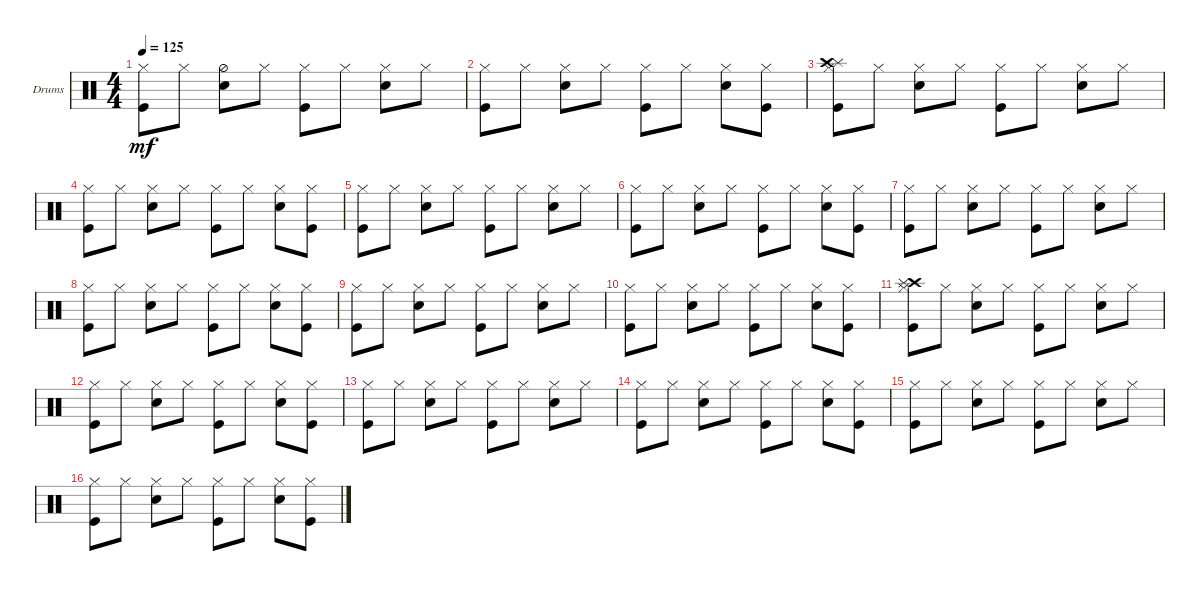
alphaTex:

\defaultSystemsLayout 4
\bracketExtendMode groupsimilarinstruments
\firstSystemTrackNameOrientation horizontal
\otherSystemsTrackNameOrientation horizontal
\track ("Drumkit" "Drums") {instrument percussion}
\staff {score}
\articulation defaults
\ts (4 4)
\tempo 125
\clef neutral
\ks c
("Kick (hit)" "Hi-Hat (closed)").8{dy mf} "Hi-Hat (closed)".8 ("Hi-Hat (half)" "Snare (hit) 2").8 "Hi-Hat (closed)".8 ("Kick (hit)" "Hi-Hat (closed)").8 "Hi-Hat (closed)".8 ("Hi-Hat (closed)" "Snare (hit) 2").8 "Hi-Hat (closed)".8 |
("Kick (hit)" "Hi-Hat (closed)").8 "Hi-Hat (closed)".8 ("Hi-Hat (closed)" "Snare (hit) 2").8 "Hi-Hat (closed)".8 ("Kick (hit)" "Hi-Hat (closed)").8 "Hi-Hat (closed)".8 ("Hi-Hat (closed)" "Snare (hit) 2").8 ("Hi-Hat (closed)" "Kick (hit)").8 |
("Kick (hit)" "Hi-Hat (closed)" "Splash (hit)" "Crash high (hit)").8 "Hi-Hat (closed)".8 ("Hi-Hat (closed)" "Snare (hit) 2").8 "Hi-Hat (closed)".8 ("Kick (hit)" "Hi-Hat (closed)").8 "Hi-Hat (closed)".8 ("Hi-Hat (closed)" "Snare (hit) 2").8 "Hi-Hat (closed)".8 |
("Kick (hit)" "Hi-Hat (closed)").8 "Hi-Hat (closed)".8 ("Hi-Hat (closed)" "Snare (hit) 2").8 "Hi-Hat (closed)".8 ("Kick (hit)" "Hi-Hat (closed)").8 "Hi-Hat (closed)".8 ("Hi-Hat (closed)" "Snare (hit) 2").8 ("Hi-Hat (closed)" "Kick (hit)").8 |
("Kick (hit)" "Hi-Hat (closed)").8 "Hi-Hat (closed)".8 ("Hi-Hat (closed)" "Snare (hit) 2").8 "Hi-Hat (closed)".8 ("Kick (hit)" "Hi-Hat (closed)").8 "Hi-Hat (closed)".8 ("Hi-Hat (closed)" "Snare (hit) 2").8 "Hi-Hat (closed)".8 |
("Kick (hit)" "Hi-Hat (closed)").8 "Hi-Hat (closed)".8 ("Hi-Hat (closed)" "Snare (hit) 2").8 "Hi-Hat (closed)".8 ("Kick (hit)" "Hi-Hat (closed)").8 "Hi-Hat (closed)".8 ("Hi-Hat (closed)" "Snare (hit) 2").8 ("Hi-Hat (closed)" "Kick (hit)").8 |
("Kick (hit)" "Hi-Hat (closed)").8 "Hi-Hat (closed)".8 ("Hi-Hat (closed)" "Snare (hit) 2").8 "Hi-Hat (closed)".8 ("Kick (hit)" "Hi-Hat (closed)").8 "Hi-Hat (closed)".8 ("Hi-Hat (closed)" "Snare (hit) 2").8 "Hi-Hat (closed)".8 |
("Kick (hit)" "Hi-Hat (closed)").8 "Hi-Hat (closed)".8 ("Hi-Hat (closed)" "Snare (hit) 2").8 "Hi-Hat (closed)".8 ("Kick (hit)" "Hi-Hat (closed)").8 "Hi-Hat (closed)".8 ("Hi-Hat (closed)" "Snare (hit) 2").8 ("Hi-Hat (closed)" "Kick (hit)").8 |
("Kick (hit)" "Hi-Hat (closed)").8 "Hi-Hat (closed)".8 ("Hi-Hat (closed)" "Snare (hit) 2").8 "Hi-Hat (closed)".8 ("Kick (hit)" "Hi-Hat (closed)").8 "Hi-Hat (closed)".8 ("Hi-Hat (closed)" "Snare (hit) 2").8 "Hi-Hat (closed)".8 |
("Kick (hit)" "Hi-Hat (closed)").8 "Hi-Hat (closed)".8 ("Hi-Hat (closed)" "Snare (hit) 2").8 "Hi-Hat (closed)".8 ("Kick (hit)" "Hi-Hat (closed)").8 "Hi-Hat (closed)".8 ("Hi-Hat (closed)" "Snare (hit) 2").8 ("Hi-Hat (closed)" "Kick (hit)").8 |
("Kick (hit)" "Hi-Hat (closed)" "Crash high (hit)" "Splash (hit)").8 "Hi-Hat (closed)".8 ("Hi-Hat (closed)" "Snare (hit) 2").8 "Hi-Hat (closed)".8 ("Kick (hit)" "Hi-Hat (closed)").8 "Hi-Hat (closed)".8 ("Hi-Hat (closed)" "Snare (hit) 2").8 "Hi-Hat (closed)".8 |
("Kick (hit)" "Hi-Hat (closed)").8 "Hi-Hat (closed)".8 ("Hi-Hat (closed)" "Snare (hit) 2").8 "Hi-Hat (closed)".8 ("Kick (hit)" "Hi-Hat (closed)").8 "Hi-Hat (closed)".8 ("Hi-Hat (closed)" "Snare (hit) 2").8 ("Hi-Hat (closed)" "Kick (hit)").8 |
("Kick (hit)" "Hi-Hat (closed)").8 "Hi-Hat (closed)".8 ("Hi-Hat (closed)" "Snare (hit) 2").8 "Hi-Hat (closed)".8 ("Kick (hit)" "Hi-Hat (closed)").8 "Hi-Hat (closed)".8 ("Hi-Hat (closed)" "Snare (hit) 2").8 "Hi-Hat (closed)".8 |
("Kick (hit)" "Hi-Hat (closed)").8 "Hi-Hat (closed)".8 ("Hi-Hat (closed)" "Snare (hit) 2").8 "Hi-Hat (closed)".8 ("Kick (hit)" "Hi-Hat (closed)").8 "Hi-Hat (closed)".8 ("Hi-Hat (closed)" "Snare (hit) 2").8 ("Hi-Hat (closed)" "Kick (hit)").8 |
("Kick (hit)" "Hi-Hat (closed)").8 "Hi-Hat (closed)".8 ("Hi-Hat (closed)" "Snare (hit) 2").8 "Hi-Hat (closed)".8 ("Kick (hit)" "Hi-Hat (closed)").8 "Hi-Hat (closed)".8 ("Hi-Hat (closed)" "Snare (hit) 2").8 "Hi-Hat (closed)".8 |
("Kick (hit)" "Hi-Hat (closed)").8 "Hi-Hat (closed)".8 ("Hi-Hat (closed)" "Snare (hit) 2").8 "Hi-Hat (closed)".8 ("Kick (hit)" "Hi-Hat (closed)").8 "Hi-Hat (closed)".8 ("Hi-Hat (closed)" "Snare (hit) 2").8 ("Hi-Hat (closed)" "Kick (hit)").8
